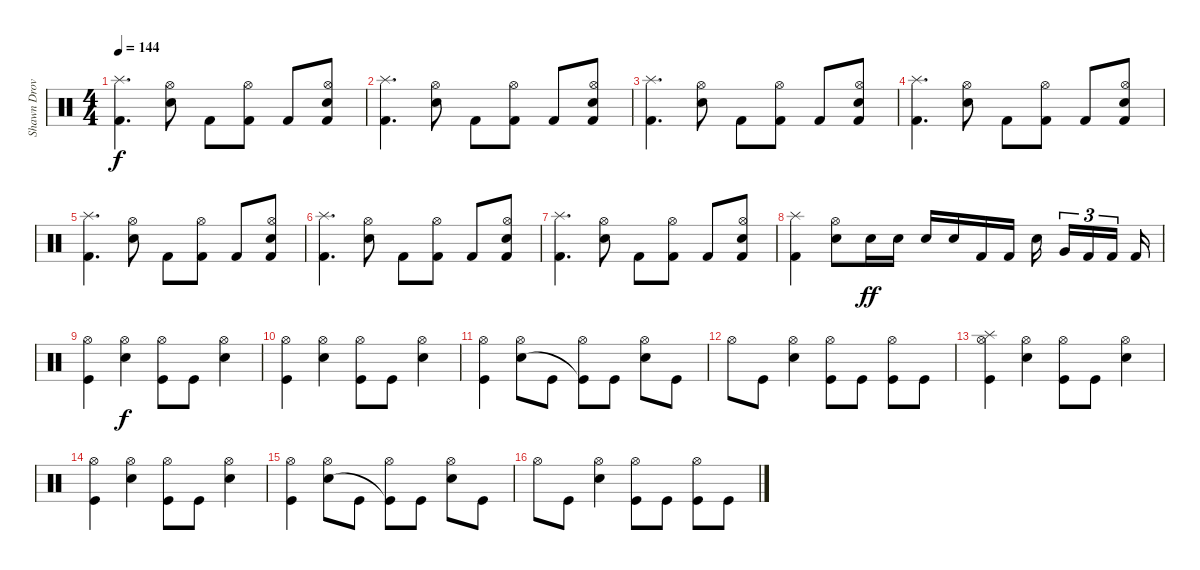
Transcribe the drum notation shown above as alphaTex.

\track ("Shawn Drover" "Shawn Drov") {instrument percussion}
\staff {score}
\articulation defaults
\ts (4 4)
\tempo 144
\clef neutral
\ks c
("Splash (hit)" "Kick (hit) 2").4{d dy f} ("Hi-Hat (open)" "Electric Snare (hit)").8 "Kick (hit) 2".8 ("Hi-Hat (open)" "Kick (hit) 2").8 "Kick (hit) 2".8 ("Hi-Hat (open)" "Electric Snare (hit)" "Kick (hit) 2").8 |
("Splash (hit)" "Kick (hit) 2").4{d} ("Hi-Hat (open)" "Electric Snare (hit)").8 "Kick (hit) 2".8 ("Hi-Hat (open)" "Kick (hit) 2").8 "Kick (hit) 2".8 ("Hi-Hat (open)" "Electric Snare (hit)" "Kick (hit) 2").8 |
("Splash (hit)" "Kick (hit) 2").4{d} ("Hi-Hat (open)" "Electric Snare (hit)").8 "Kick (hit) 2".8 ("Hi-Hat (open)" "Kick (hit) 2").8 "Kick (hit) 2".8 ("Hi-Hat (open)" "Electric Snare (hit)" "Kick (hit) 2").8 |
("Splash (hit)" "Kick (hit) 2").4{d} ("Hi-Hat (open)" "Electric Snare (hit)").8 "Kick (hit) 2".8 ("Hi-Hat (open)" "Kick (hit) 2").8 "Kick (hit) 2".8 ("Hi-Hat (open)" "Electric Snare (hit)" "Kick (hit) 2").8 |
("Splash (hit)" "Kick (hit) 2").4{d} ("Hi-Hat (open)" "Electric Snare (hit)").8 "Kick (hit) 2".8 ("Hi-Hat (open)" "Kick (hit) 2").8 "Kick (hit) 2".8 ("Hi-Hat (open)" "Electric Snare (hit)" "Kick (hit) 2").8 |
("Splash (hit)" "Kick (hit) 2").4{d} ("Hi-Hat (open)" "Electric Snare (hit)").8 "Kick (hit) 2".8 ("Hi-Hat (open)" "Kick (hit) 2").8 "Kick (hit) 2".8 ("Hi-Hat (open)" "Electric Snare (hit)" "Kick (hit) 2").8 |
("Splash (hit)" "Kick (hit) 2").4{d} ("Hi-Hat (open)" "Electric Snare (hit)").8 "Kick (hit) 2".8 ("Hi-Hat (open)" "Kick (hit) 2").8 "Kick (hit) 2".8 ("Hi-Hat (open)" "Electric Snare (hit)" "Kick (hit) 2").8 |
("Splash (hit)" "Kick (hit) 2").4 ("Hi-Hat (open)" "Electric Snare (hit)").8 "Electric Snare (hit)".16{dy ff} "Electric Snare (hit)".16 "Electric Snare (hit)".16 "Electric Snare (hit)".16 "Kick (hit) 2".16 "Kick (hit) 2".16 "Electric Snare (hit)".16{beam splitsecondary} "Very Low Tom (hit)".16{tu (3 2)} "Kick (hit) 2".16{tu (3 2)} "Kick (hit) 2".16{tu (3 2) beam splitsecondary} "Kick (hit) 2".16 |
("Hi-Hat (open)" "Kick (hit)").4 ("Hi-Hat (open)" "Snare (hit) 2").4{dy f} ("Hi-Hat (open)" "Kick (hit)").8 "Kick (hit)".8 ("Hi-Hat (open)" "Snare (hit) 2").4 |
("Hi-Hat (open)" "Kick (hit)").4 ("Hi-Hat (open)" "Snare (hit) 2").4 ("Hi-Hat (open)" "Kick (hit)").8 "Kick (hit)".8 ("Hi-Hat (open)" "Snare (hit) 2").4 |
("Hi-Hat (open)" "Kick (hit)").4 ("Hi-Hat (open)" "Snare (hit) 2").8 "Kick (hit)".8 ("Hi-Hat (open)" "Kick (hit)"{t}).8 "Kick (hit)".8 ("Hi-Hat (open)" "Snare (hit) 2").8 "Kick (hit)".8 |
"Hi-Hat (open)".8 "Kick (hit)".8 ("Hi-Hat (open)" "Snare (hit) 2").4 ("Hi-Hat (open)" "Kick (hit)").8 "Kick (hit)".8 ("Hi-Hat (open)" "Kick (hit)").8 "Kick (hit)".8 |
("Hi-Hat (open)" "Splash (hit)" "Kick (hit)").4 ("Hi-Hat (open)" "Snare (hit) 2").4 ("Hi-Hat (open)" "Kick (hit)").8 "Kick (hit)".8 ("Hi-Hat (open)" "Snare (hit) 2").4 |
("Hi-Hat (open)" "Kick (hit)").4 ("Hi-Hat (open)" "Snare (hit) 2").4 ("Hi-Hat (open)" "Kick (hit)").8 "Kick (hit)".8 ("Hi-Hat (open)" "Snare (hit) 2").4 |
("Hi-Hat (open)" "Kick (hit)").4 ("Hi-Hat (open)" "Snare (hit) 2").8 "Kick (hit)".8 ("Hi-Hat (open)" "Kick (hit)"{t}).8 "Kick (hit)".8 ("Hi-Hat (open)" "Snare (hit) 2").8 "Kick (hit)".8 |
"Hi-Hat (open)".8 "Kick (hit)".8 ("Hi-Hat (open)" "Snare (hit) 2").4 ("Hi-Hat (open)" "Kick (hit)").8 "Kick (hit)".8 ("Hi-Hat (open)" "Kick (hit)").8 "Kick (hit)".8
